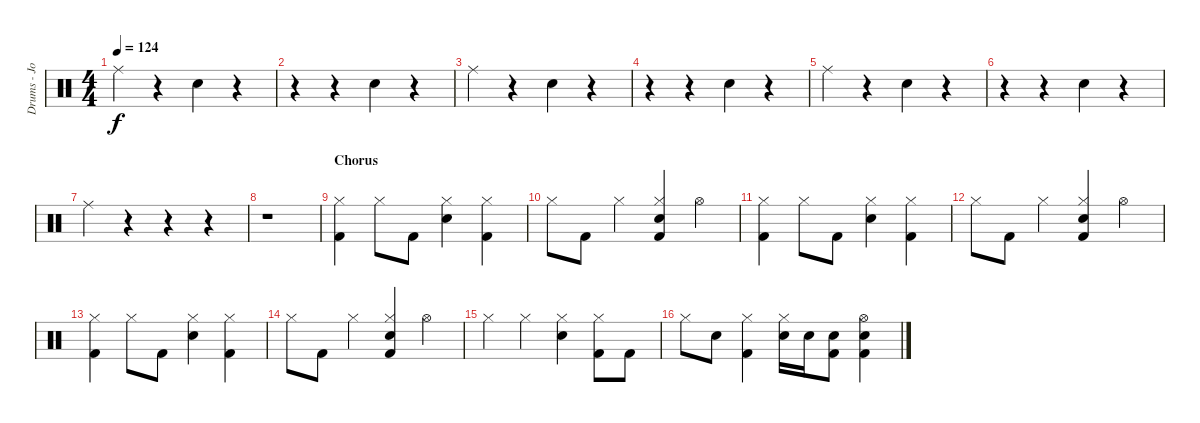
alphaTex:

\track ("Drums - John Humphrey" "Drums - Jo") {instrument percussion}
\staff {score}
\articulation defaults
\ts (4 4)
\tempo 124
\clef neutral
\ks c "Ride (middle)".4{dy f}
r.4 "Electric Snare (hit)".4 r.4 |
r.4 r.4 "Electric Snare (hit)".4 r.4 |
"Ride (middle)".4 r.4 "Electric Snare (hit)".4 r.4 |
r.4 r.4 "Electric Snare (hit)".4 r.4 |
"Ride (middle)".4 r.4 "Electric Snare (hit)".4 r.4 |
r.4 r.4 "Electric Snare (hit)".4 r.4 |
"Ride (middle)".4 r.4 r.4 r.4 |
r.1 |
\section ("" "Chorus")
("Hi-Hat (closed)" "Kick (hit) 2").4 "Hi-Hat (closed)".8 "Kick (hit) 2".8 ("Hi-Hat (closed)" "Electric Snare (hit)").4 ("Hi-Hat (closed)" "Kick (hit) 2").4 |
"Hi-Hat (closed)".8 "Kick (hit) 2".8 "Hi-Hat (closed)".4 ("Hi-Hat (closed)" "Electric Snare (hit)" "Kick (hit) 2").4 "Hi-Hat (open)".4 |
("Hi-Hat (closed)" "Kick (hit) 2").4 "Hi-Hat (closed)".8 "Kick (hit) 2".8 ("Hi-Hat (closed)" "Electric Snare (hit)").4 ("Hi-Hat (closed)" "Kick (hit) 2").4 |
"Hi-Hat (closed)".8 "Kick (hit) 2".8 "Hi-Hat (closed)".4 ("Hi-Hat (closed)" "Electric Snare (hit)" "Kick (hit) 2").4 "Hi-Hat (open)".4 |
("Hi-Hat (closed)" "Kick (hit) 2").4 "Hi-Hat (closed)".8 "Kick (hit) 2".8 ("Hi-Hat (closed)" "Electric Snare (hit)").4 ("Hi-Hat (closed)" "Kick (hit) 2").4 |
"Hi-Hat (closed)".8 "Kick (hit) 2".8 "Hi-Hat (closed)".4 ("Hi-Hat (closed)" "Electric Snare (hit)" "Kick (hit) 2").4 "Hi-Hat (open)".4 |
"Hi-Hat (closed)".4 "Hi-Hat (closed)".4 ("Hi-Hat (closed)" "Electric Snare (hit)").4 ("Hi-Hat (closed)" "Kick (hit) 2").8 "Kick (hit) 2".8 |
"Hi-Hat (closed)".8 "Electric Snare (hit)".8 ("Hi-Hat (closed)" "Kick (hit) 2").4 ("Hi-Hat (closed)" "Electric Snare (hit)").16 "Electric Snare (hit)".16 ("Electric Snare (hit)" "Kick (hit) 2").8 ("Hi-Hat (open)" "Electric Snare (hit)" "Kick (hit) 2").4
